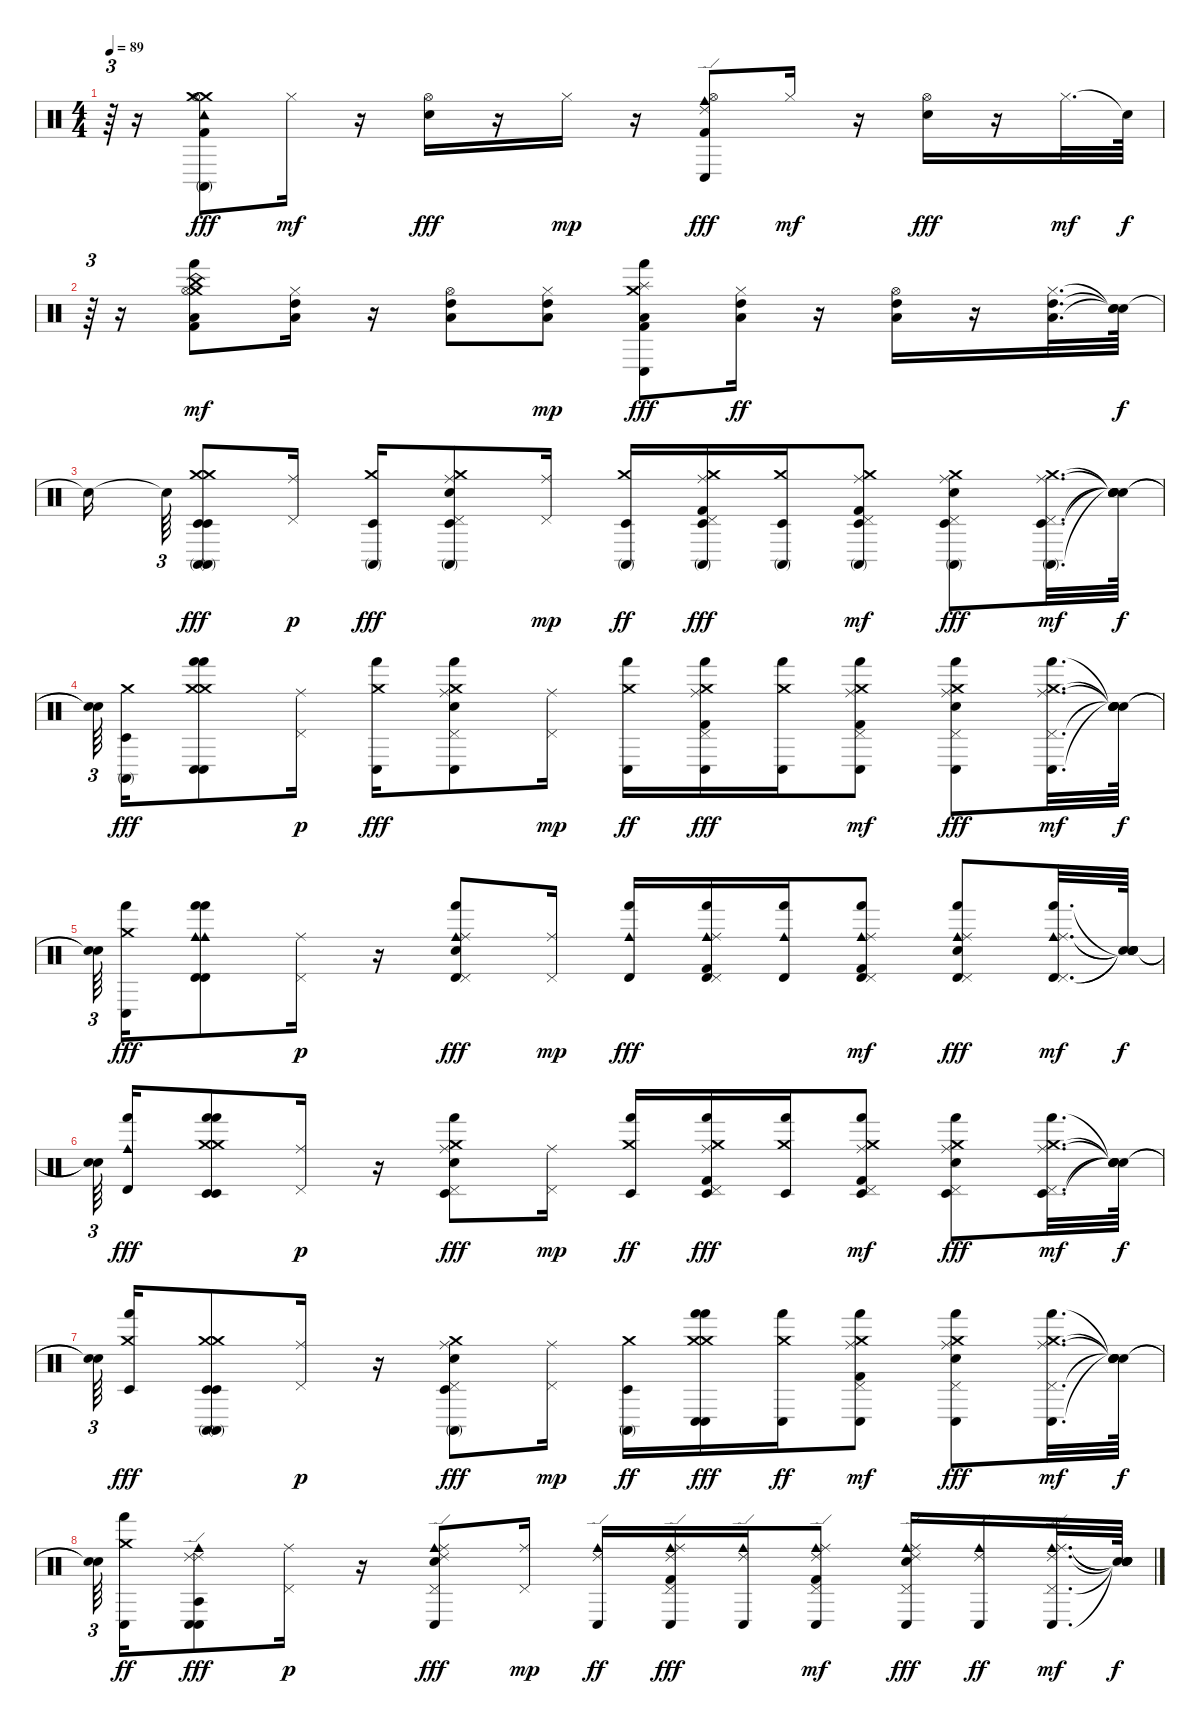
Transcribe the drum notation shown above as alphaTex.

\track "" {instrument percussion}
\staff {score}
\articulation defaults
\ts (4 4)
\tempo 89
\clef neutral
\ks c
r.64{tu (3 2) dy f} r.16 ("Tambourine (hit)" "Crash medium (hit)" "Conga high (mute)" "Kick (hit) 2" "Hi-Hat (open)" "Crash medium (hit)").8{dy fff} "Hi-Hat (closed)".16{dy mf} r.16 ("Snare (hit) 2" "Hi-Hat (open)").16{dy fff} r.16 "Hi-Hat (closed)".16{dy mp} r.16 ("Cowbell medium (hit)" "Ride (edge) 2" "Conga low (hit)" "Kick (hit) 2" "Hi-Hat (open)").8{dy fff} "Hi-Hat (closed)".16{dy mf} r.16 ("Snare (hit) 2" "Hi-Hat (open)").16{dy fff} r.16 "Hi-Hat (closed)".32{d dy mf} "Snare (hit)"{t}.64{dy f} |
r.64{tu (3 2)} r.16 ("China (hit)" "Crash medium (hit)" "Hand (hit)" "Kick (hit) 2" "Low Tom (hit)" "Hi-Hat (open)").8{dy mf} ("Hi-Hat (closed)" "Low Tom (hit)" "High Tom (hit)").16 r.16 ("Low Tom (hit)" "Hi-Hat (open)" "High Tom (hit)").8 ("Hi-Hat (closed)" "Low Tom (hit)" "High Tom (hit)").8{dy mp} ("Splash (hit)" "Crash medium (hit)" "Hand (hit)" "Conga low (hit)" "Kick (hit) 2" "Low Tom (hit)").8{dy fff} ("Hi-Hat (closed)" "Low Tom (hit)" "High Tom (hit)").16{dy ff} r.16 ("Low Tom (hit)" "Hi-Hat (open)" "High Tom (hit)").16 r.16 ("Hi-Hat (closed)" "Low Tom (hit)" "High Tom (hit)").32{d} ("Snare (hit)"{t} "Snare (hit)"{t} "Snare (hit)"{t}).64{dy f} |
"Snare (hit)"{t}.16{beam splitsecondary} "Snare (hit)"{t}.64{tu (3 2)} ("Crash medium (hit)" "Conga high (mute)" "Timbale low (hit)" "Crash medium (hit)" "Conga high (mute)" "Timbale low (hit)").8{dy fff} ("Pedal Hi-Hat (hit)" "Ride (middle)").16{dy p} ("Crash medium (hit)" "Conga high (mute)" "Timbale low (hit)").16{dy fff} ("Crash medium (hit)" "Conga high (mute)" "Timbale low (hit)" "Snare (hit) 2" "Pedal Hi-Hat (hit)" "Ride (middle)").8 ("Pedal Hi-Hat (hit)" "Ride (middle)").16{dy mp} ("Crash medium (hit)" "Conga high (mute)" "Timbale low (hit)").16{dy ff} ("Crash medium (hit)" "Conga high (mute)" "Timbale low (hit)" "Kick (hit) 2" "Pedal Hi-Hat (hit)" "Ride (middle)").16{dy fff} ("Crash medium (hit)" "Conga high (mute)" "Timbale low (hit)").16 ("Crash medium (hit)" "Conga high (mute)" "Timbale low (hit)" "Kick (hit) 2" "Pedal Hi-Hat (hit)" "Ride (middle)").8{dy mf} ("Crash medium (hit)" "Conga high (mute)" "Timbale low (hit)" "Snare (hit) 2" "Pedal Hi-Hat (hit)" "Ride (middle)").8{dy fff} ("Crash medium (hit)" "Conga high (mute)" "Timbale low (hit)" "Pedal Hi-Hat (hit)" "Ride (middle)").32{d dy mf} ("Snare (hit)"{t} "Snare (hit)"{t} "Snare (hit)"{t} "Snare (hit)"{t} "Snare (hit)"{t}).64{dy f} |
("Snare (hit)"{t} "Snare (hit)"{t}).64{tu (3 2) beam splitsecondary} ("Crash medium (hit)" "Conga high (mute)" "Timbale low (hit)").16{dy fff} ("Crash medium (hit)" "Hand (hit)" "Conga low (hit)" "Crash medium (hit)" "Hand (hit)" "Conga low (hit)").8 ("Pedal Hi-Hat (hit)" "Ride (middle)").16{dy p} ("Crash medium (hit)" "Hand (hit)" "Conga low (hit)").16{dy fff} ("Crash medium (hit)" "Hand (hit)" "Conga low (hit)" "Snare (hit) 2" "Pedal Hi-Hat (hit)" "Ride (middle)").8 ("Pedal Hi-Hat (hit)" "Ride (middle)").16{dy mp} ("Crash medium (hit)" "Hand (hit)" "Conga low (hit)").16{dy ff} ("Crash medium (hit)" "Hand (hit)" "Conga low (hit)" "Kick (hit) 2" "Pedal Hi-Hat (hit)" "Ride (middle)").16{dy fff} ("Crash medium (hit)" "Hand (hit)" "Conga low (hit)").16 ("Crash medium (hit)" "Hand (hit)" "Conga low (hit)" "Kick (hit) 2" "Pedal Hi-Hat (hit)" "Ride (middle)").8{dy mf} ("Crash medium (hit)" "Hand (hit)" "Conga low (hit)" "Snare (hit) 2" "Pedal Hi-Hat (hit)" "Ride (middle)").8{dy fff} ("Crash medium (hit)" "Hand (hit)" "Conga low (hit)" "Pedal Hi-Hat (hit)" "Ride (middle)").32{d dy mf} ("Snare (hit)"{t} "Snare (hit)"{t} "Snare (hit)"{t} "Snare (hit)"{t} "Snare (hit)"{t}).64{dy f} |
("Snare (hit)"{t} "Snare (hit)"{t}).64{tu (3 2) beam splitsecondary} ("Crash medium (hit)" "Hand (hit)" "Conga low (hit)").16{dy fff} ("Cowbell medium (hit)" "Hand (hit)" "Timbale high (hit)" "Cowbell medium (hit)" "Hand (hit)" "Timbale high (hit)").8 ("Pedal Hi-Hat (hit)" "Ride (middle)").16{dy p} r.16 ("Cowbell medium (hit)" "Hand (hit)" "Timbale high (hit)" "Snare (hit) 2" "Pedal Hi-Hat (hit)" "Ride (middle)").8{dy fff} ("Pedal Hi-Hat (hit)" "Ride (middle)").16{dy mp} ("Cowbell medium (hit)" "Hand (hit)" "Timbale high (hit)").16{dy fff} ("Cowbell medium (hit)" "Hand (hit)" "Timbale high (hit)" "Kick (hit) 2" "Pedal Hi-Hat (hit)" "Ride (middle)").16 ("Cowbell medium (hit)" "Hand (hit)" "Timbale high (hit)").16 ("Cowbell medium (hit)" "Hand (hit)" "Timbale high (hit)" "Kick (hit) 2" "Pedal Hi-Hat (hit)" "Ride (middle)").8{dy mf} ("Cowbell medium (hit)" "Hand (hit)" "Timbale high (hit)" "Snare (hit) 2" "Pedal Hi-Hat (hit)" "Ride (middle)").8{dy fff} ("Cowbell medium (hit)" "Hand (hit)" "Timbale high (hit)" "Pedal Hi-Hat (hit)" "Ride (middle)").32{d dy mf} ("Snare (hit)"{t} "Snare (hit)"{t} "Snare (hit)"{t} "Snare (hit)"{t} "Snare (hit)"{t}).64{dy f} |
("Snare (hit)"{t} "Snare (hit)"{t}).64{tu (3 2) beam splitsecondary} ("Cowbell medium (hit)" "Hand (hit)" "Timbale high (hit)").16{dy fff} ("Crash medium (hit)" "Hand (hit)" "Timbale low (hit)" "Crash medium (hit)" "Hand (hit)" "Timbale low (hit)").8 ("Pedal Hi-Hat (hit)" "Ride (middle)").16{dy p} r.16 ("Crash medium (hit)" "Hand (hit)" "Timbale low (hit)" "Snare (hit) 2" "Pedal Hi-Hat (hit)" "Ride (middle)").8{dy fff} ("Pedal Hi-Hat (hit)" "Ride (middle)").16{dy mp} ("Crash medium (hit)" "Hand (hit)" "Timbale low (hit)").16{dy ff} ("Crash medium (hit)" "Hand (hit)" "Timbale low (hit)" "Kick (hit) 2" "Pedal Hi-Hat (hit)" "Ride (middle)").16{dy fff} ("Crash medium (hit)" "Hand (hit)" "Timbale low (hit)").16 ("Crash medium (hit)" "Hand (hit)" "Timbale low (hit)" "Kick (hit) 2" "Pedal Hi-Hat (hit)" "Ride (middle)").8{dy mf} ("Crash medium (hit)" "Hand (hit)" "Timbale low (hit)" "Snare (hit) 2" "Pedal Hi-Hat (hit)" "Ride (middle)").8{dy fff} ("Crash medium (hit)" "Hand (hit)" "Timbale low (hit)" "Pedal Hi-Hat (hit)" "Ride (middle)").32{d dy mf} ("Snare (hit)"{t} "Snare (hit)"{t} "Snare (hit)"{t} "Snare (hit)"{t} "Snare (hit)"{t}).64{dy f} |
("Snare (hit)"{t} "Snare (hit)"{t}).64{tu (3 2) beam splitsecondary} ("Crash medium (hit)" "Hand (hit)" "Timbale low (hit)").16{dy fff} ("Crash medium (hit)" "Conga high (mute)" "Timbale low (hit)" "Crash medium (hit)" "Conga high (mute)" "Timbale low (hit)").8 ("Pedal Hi-Hat (hit)" "Ride (middle)").16{dy p} r.16 ("Crash medium (hit)" "Conga high (mute)" "Timbale low (hit)" "Snare (hit) 2" "Pedal Hi-Hat (hit)" "Ride (middle)").8{dy fff} ("Pedal Hi-Hat (hit)" "Ride (middle)").16{dy mp} ("Crash medium (hit)" "Conga high (mute)" "Timbale low (hit)").16{dy ff} ("Crash medium (hit)" "Hand (hit)" "Conga low (hit)" "Crash medium (hit)" "Hand (hit)" "Conga low (hit)").16{dy fff} ("Crash medium (hit)" "Hand (hit)" "Conga low (hit)").16{dy ff} ("Crash medium (hit)" "Hand (hit)" "Conga low (hit)" "Kick (hit) 2" "Pedal Hi-Hat (hit)" "Ride (middle)").8{dy mf} ("Crash medium (hit)" "Hand (hit)" "Conga low (hit)" "Snare (hit) 2" "Pedal Hi-Hat (hit)" "Ride (middle)").8{dy fff} ("Crash medium (hit)" "Hand (hit)" "Conga low (hit)" "Pedal Hi-Hat (hit)" "Ride (middle)").32{d dy mf} ("Snare (hit)"{t} "Snare (hit)"{t} "Snare (hit)"{t} "Snare (hit)"{t} "Snare (hit)"{t}).64{dy f} |
("Snare (hit)"{t} "Snare (hit)"{t}).64{tu (3 2) beam splitsecondary} ("Crash medium (hit)" "Hand (hit)" "Conga low (hit)").16{dy ff} ("Ride (edge) 2" "Conga low (hit)" "Agogo tow (hit)" "Cowbell medium (hit)" "Ride (edge) 2" "Conga low (hit)").8{dy fff} ("Pedal Hi-Hat (hit)" "Ride (middle)").16{dy p} r.16 ("Cowbell medium (hit)" "Ride (edge) 2" "Conga low (hit)" "Snare (hit) 2" "Pedal Hi-Hat (hit)" "Ride (middle)").8{dy fff} ("Pedal Hi-Hat (hit)" "Ride (middle)").16{dy mp} ("Cowbell medium (hit)" "Ride (edge) 2" "Conga low (hit)").16{dy ff} ("Cowbell medium (hit)" "Ride (edge) 2" "Conga low (hit)" "Kick (hit) 2" "Pedal Hi-Hat (hit)" "Ride (middle)").16{dy fff} ("Cowbell medium (hit)" "Ride (edge) 2" "Conga low (hit)").16 ("Cowbell medium (hit)" "Ride (edge) 2" "Conga low (hit)" "Kick (hit) 2" "Pedal Hi-Hat (hit)" "Ride (middle)").8{dy mf} ("Cowbell medium (hit)" "Ride (edge) 2" "Conga low (hit)" "Snare (hit) 2" "Pedal Hi-Hat (hit)" "Ride (middle)").16{dy fff} ("Cowbell medium (hit)" "Ride (edge) 2" "Conga low (hit)").16{dy ff} ("Cowbell medium (hit)" "Ride (edge) 2" "Conga low (hit)" "Pedal Hi-Hat (hit)" "Ride (middle)").32{d dy mf} ("Snare (hit)"{t} "Snare (hit)"{t} "Snare (hit)"{t} "Snare (hit)"{t} "Snare (hit)"{t}).64{dy f}
